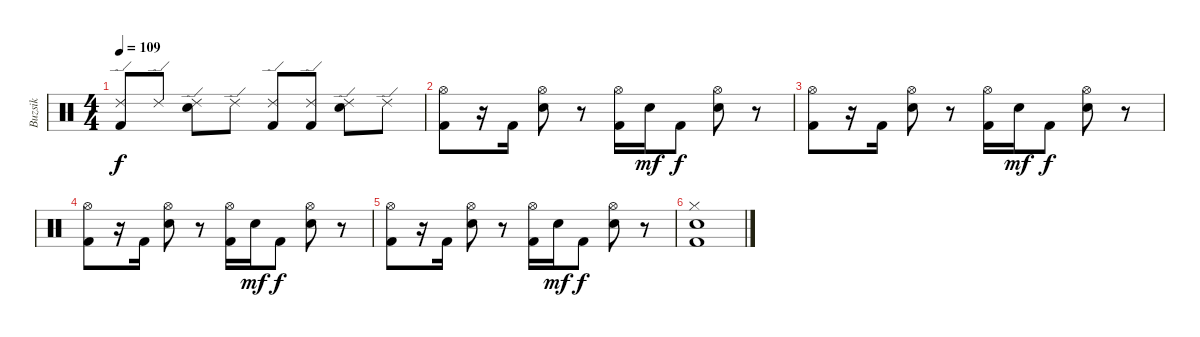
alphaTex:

\track ("Buzsik" "Buzsik") {instrument percussion}
\staff {score}
\articulation defaults
\ts (4 4)
\tempo 109
\clef neutral
\ks c
("Ride (edge) 2" "Kick (hit) 2").8{dy f} "Ride (edge) 2".8 ("Ride (edge) 2" "Electric Snare (hit)").8 "Ride (edge) 2".8 ("Ride (edge) 2" "Kick (hit) 2").8 ("Ride (edge) 2" "Kick (hit) 2").8 ("Ride (edge) 2" "Electric Snare (hit)").8 "Ride (edge) 2".8 |
\section ("" "")
("Hi-Hat (open)" "Kick (hit) 2").8 r.16 "Kick (hit) 2".16 ("Hi-Hat (open)" "Electric Snare (hit)").8 r.8 ("Hi-Hat (open)" "Kick (hit) 2").16 "Electric Snare (hit)".16{dy mf} "Kick (hit) 2".8{dy f} ("Hi-Hat (open)" "Electric Snare (hit)").8 r.8 |
("Hi-Hat (open)" "Kick (hit) 2").8 r.16 "Kick (hit) 2".16 ("Hi-Hat (open)" "Electric Snare (hit)").8 r.8 ("Hi-Hat (open)" "Kick (hit) 2").16 "Electric Snare (hit)".16{dy mf} "Kick (hit) 2".8{dy f} ("Hi-Hat (open)" "Electric Snare (hit)").8 r.8 |
("Hi-Hat (open)" "Kick (hit) 2").8 r.16 "Kick (hit) 2".16 ("Hi-Hat (open)" "Electric Snare (hit)").8 r.8 ("Hi-Hat (open)" "Kick (hit) 2").16 "Electric Snare (hit)".16{dy mf} "Kick (hit) 2".8{dy f} ("Hi-Hat (open)" "Electric Snare (hit)").8 r.8 |
("Hi-Hat (open)" "Kick (hit) 2").8 r.16 "Kick (hit) 2".16 ("Hi-Hat (open)" "Electric Snare (hit)").8 r.8 ("Hi-Hat (open)" "Kick (hit) 2").16 "Electric Snare (hit)".16{dy mf} "Kick (hit) 2".8{dy f} ("Hi-Hat (open)" "Electric Snare (hit)").8 r.8 |
("Hi-Hat (closed)" "Electric Snare (hit)" "Kick (hit) 2").1
